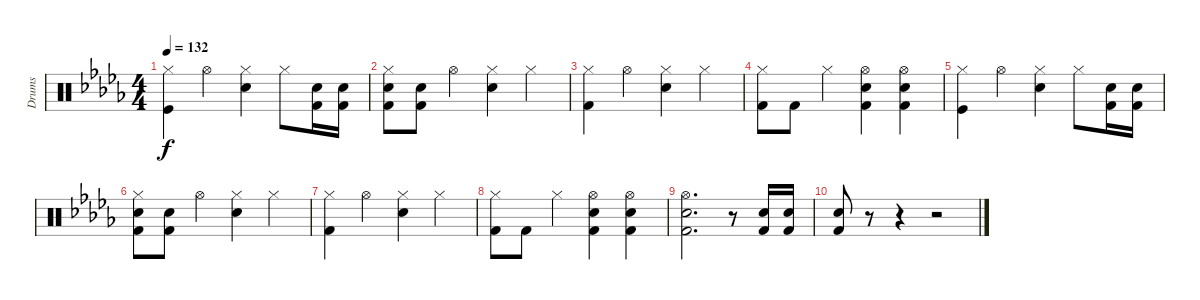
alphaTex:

\track ("Drums" "Drums") {instrument percussion}
\staff {score}
\articulation defaults
\ts (4 4)
\tempo 132
\clef neutral
\ks db
("Kick (hit)" "Hi-Hat (closed)").4{dy f} "Hi-Hat (open)".4 ("Snare (hit) 2" "Hi-Hat (closed)").4 "Hi-Hat (closed)".8 ("Kick (hit) 2" "Snare (hit) 2").16 ("Kick (hit) 2" "Snare (hit) 2").16 |
("Kick (hit) 2" "Hi-Hat (closed)" "Snare (hit) 2").8 ("Kick (hit) 2" "Snare (hit) 2").8 "Hi-Hat (open)".4 ("Snare (hit) 2" "Hi-Hat (closed)").4 "Hi-Hat (closed)".4 |
("Kick (hit) 2" "Hi-Hat (closed)").4 "Hi-Hat (open)".4 ("Snare (hit) 2" "Hi-Hat (closed)").4 "Hi-Hat (closed)".4 |
("Kick (hit) 2" "Hi-Hat (closed)").8 "Kick (hit) 2".8 "Hi-Hat (closed)".4 ("Snare (hit) 2" "Hi-Hat (open)" "Kick (hit) 2").4 ("Kick (hit) 2" "Snare (hit) 2" "Hi-Hat (open)").4 |
("Kick (hit)" "Hi-Hat (closed)").4 "Hi-Hat (open)".4 ("Snare (hit) 2" "Hi-Hat (closed)").4 "Hi-Hat (closed)".8 ("Kick (hit) 2" "Snare (hit) 2").16 ("Kick (hit) 2" "Snare (hit) 2").16 |
("Kick (hit) 2" "Hi-Hat (closed)" "Snare (hit) 2").8 ("Kick (hit) 2" "Snare (hit) 2").8 "Hi-Hat (open)".4 ("Snare (hit) 2" "Hi-Hat (closed)").4 "Hi-Hat (closed)".4 |
("Kick (hit) 2" "Hi-Hat (closed)").4 "Hi-Hat (open)".4 ("Snare (hit) 2" "Hi-Hat (closed)").4 "Hi-Hat (closed)".4 |
("Kick (hit) 2" "Hi-Hat (closed)").8 "Kick (hit) 2".8 "Hi-Hat (closed)".4 ("Snare (hit) 2" "Hi-Hat (open)" "Kick (hit) 2").4 ("Kick (hit) 2" "Snare (hit) 2" "Hi-Hat (open)").4 |
("Snare (hit) 2" "Kick (hit) 2" "Hi-Hat (open)").2{d} r.8 ("Kick (hit) 2" "Snare (hit) 2").16 ("Kick (hit) 2" "Snare (hit) 2").16 |
("Kick (hit) 2" "Snare (hit) 2").8 r.8 r.4 r.2
